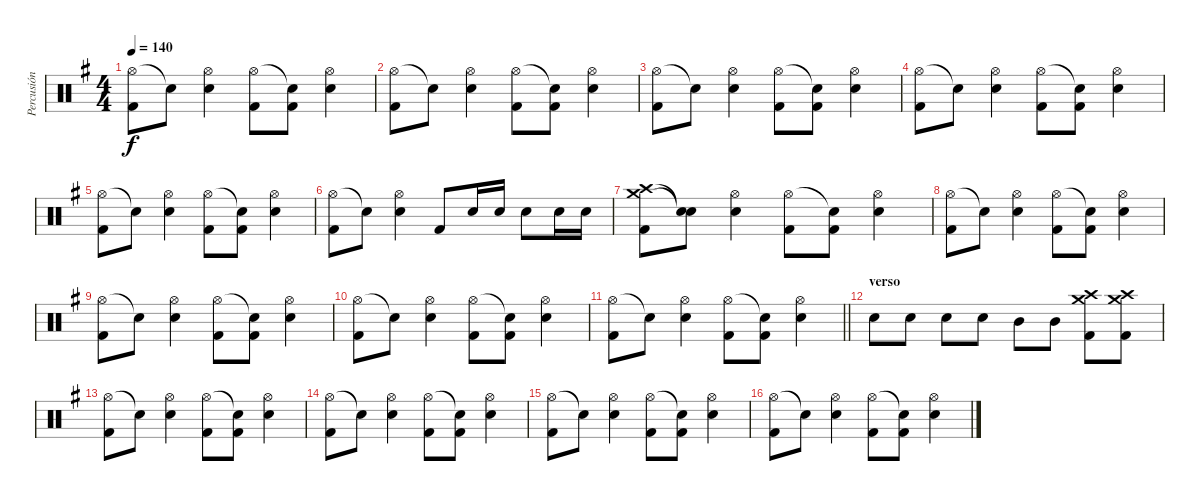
\track ("Percusión" "Percusión") {instrument percussion}
\staff {score}
\articulation defaults
\ts (4 4)
\tempo 140
\clef neutral
\ks g
("Hi-Hat (open)" "Kick (hit) 2").8{dy f} "Snare (hit)"{t}.8 ("Hi-Hat (open)" "Electric Snare (hit)").4 ("Hi-Hat (open)" "Kick (hit) 2").8 ("Snare (hit)"{t} "Kick (hit) 2").8 ("Hi-Hat (open)" "Electric Snare (hit)").4 |
("Hi-Hat (open)" "Kick (hit) 2").8 "Snare (hit)"{t}.8 ("Hi-Hat (open)" "Electric Snare (hit)").4 ("Hi-Hat (open)" "Kick (hit) 2").8 ("Snare (hit)"{t} "Kick (hit) 2").8 ("Hi-Hat (open)" "Electric Snare (hit)").4 |
("Hi-Hat (open)" "Kick (hit) 2").8 "Snare (hit)"{t}.8 ("Hi-Hat (open)" "Electric Snare (hit)").4 ("Hi-Hat (open)" "Kick (hit) 2").8 ("Snare (hit)"{t} "Kick (hit) 2").8 ("Hi-Hat (open)" "Electric Snare (hit)").4 |
("Hi-Hat (open)" "Kick (hit) 2").8 "Snare (hit)"{t}.8 ("Hi-Hat (open)" "Electric Snare (hit)").4 ("Hi-Hat (open)" "Kick (hit) 2").8 ("Snare (hit)"{t} "Kick (hit) 2").8 ("Hi-Hat (open)" "Electric Snare (hit)").4 |
("Hi-Hat (open)" "Kick (hit) 2").8 "Snare (hit)"{t}.8 ("Hi-Hat (open)" "Electric Snare (hit)").4 ("Hi-Hat (open)" "Kick (hit) 2").8 ("Snare (hit)"{t} "Kick (hit) 2").8 ("Hi-Hat (open)" "Electric Snare (hit)").4 |
("Hi-Hat (open)" "Kick (hit) 2").8 "Snare (hit)"{t}.8 ("Hi-Hat (open)" "Electric Snare (hit)").4 "Kick (hit) 2".8 "Electric Snare (hit)".16 "Electric Snare (hit)".16 "Electric Snare (hit)".8 "Electric Snare (hit)".16 "Electric Snare (hit)".16 |
("Crash medium (hit)" "Crash high (hit)" "Kick (hit) 2").8 ("Snare (hit)"{t} "Snare (hit)"{t}).8 ("Hi-Hat (open)" "Electric Snare (hit)").4 ("Hi-Hat (open)" "Kick (hit) 2").8 ("Snare (hit)"{t} "Kick (hit) 2").8 ("Hi-Hat (open)" "Electric Snare (hit)").4 |
("Hi-Hat (open)" "Kick (hit) 2").8 "Snare (hit)"{t}.8 ("Hi-Hat (open)" "Electric Snare (hit)").4 ("Hi-Hat (open)" "Kick (hit) 2").8 ("Snare (hit)"{t} "Kick (hit) 2").8 ("Hi-Hat (open)" "Electric Snare (hit)").4 |
("Hi-Hat (open)" "Kick (hit) 2").8 "Snare (hit)"{t}.8 ("Hi-Hat (open)" "Electric Snare (hit)").4 ("Hi-Hat (open)" "Kick (hit) 2").8 ("Snare (hit)"{t} "Kick (hit) 2").8 ("Hi-Hat (open)" "Electric Snare (hit)").4 |
("Hi-Hat (open)" "Kick (hit) 2").8 "Snare (hit)"{t}.8 ("Hi-Hat (open)" "Electric Snare (hit)").4 ("Hi-Hat (open)" "Kick (hit) 2").8 ("Snare (hit)"{t} "Kick (hit) 2").8 ("Hi-Hat (open)" "Electric Snare (hit)").4 |
\barLineRight lightlight
("Hi-Hat (open)" "Kick (hit) 2").8 "Snare (hit)"{t}.8 ("Hi-Hat (open)" "Electric Snare (hit)").4 ("Hi-Hat (open)" "Kick (hit) 2").8 ("Snare (hit)"{t} "Kick (hit) 2").8 ("Hi-Hat (open)" "Electric Snare (hit)").4 |
\section ("" "verso")
"Electric Snare (hit)".8 "Electric Snare (hit)".8 "Electric Snare (hit)".8 "Electric Snare (hit)".8 "Mid Tom (hit)".8 "Mid Tom (hit)".8 ("Crash high (hit)" "Crash medium (hit)" "Kick (hit) 2").8 ("Crash high (hit)" "Crash medium (hit)" "Kick (hit) 2").8 |
("Hi-Hat (open)" "Kick (hit) 2").8 "Snare (hit)"{t}.8 ("Hi-Hat (open)" "Electric Snare (hit)").4 ("Hi-Hat (open)" "Kick (hit) 2").8 ("Snare (hit)"{t} "Kick (hit) 2").8 ("Hi-Hat (open)" "Electric Snare (hit)").4 |
("Hi-Hat (open)" "Kick (hit) 2").8 "Snare (hit)"{t}.8 ("Hi-Hat (open)" "Electric Snare (hit)").4 ("Hi-Hat (open)" "Kick (hit) 2").8 ("Snare (hit)"{t} "Kick (hit) 2").8 ("Hi-Hat (open)" "Electric Snare (hit)").4 |
("Hi-Hat (open)" "Kick (hit) 2").8 "Snare (hit)"{t}.8 ("Hi-Hat (open)" "Electric Snare (hit)").4 ("Hi-Hat (open)" "Kick (hit) 2").8 ("Snare (hit)"{t} "Kick (hit) 2").8 ("Hi-Hat (open)" "Electric Snare (hit)").4 |
("Hi-Hat (open)" "Kick (hit) 2").8 "Snare (hit)"{t}.8 ("Hi-Hat (open)" "Electric Snare (hit)").4 ("Hi-Hat (open)" "Kick (hit) 2").8 ("Snare (hit)"{t} "Kick (hit) 2").8 ("Hi-Hat (open)" "Electric Snare (hit)").4
